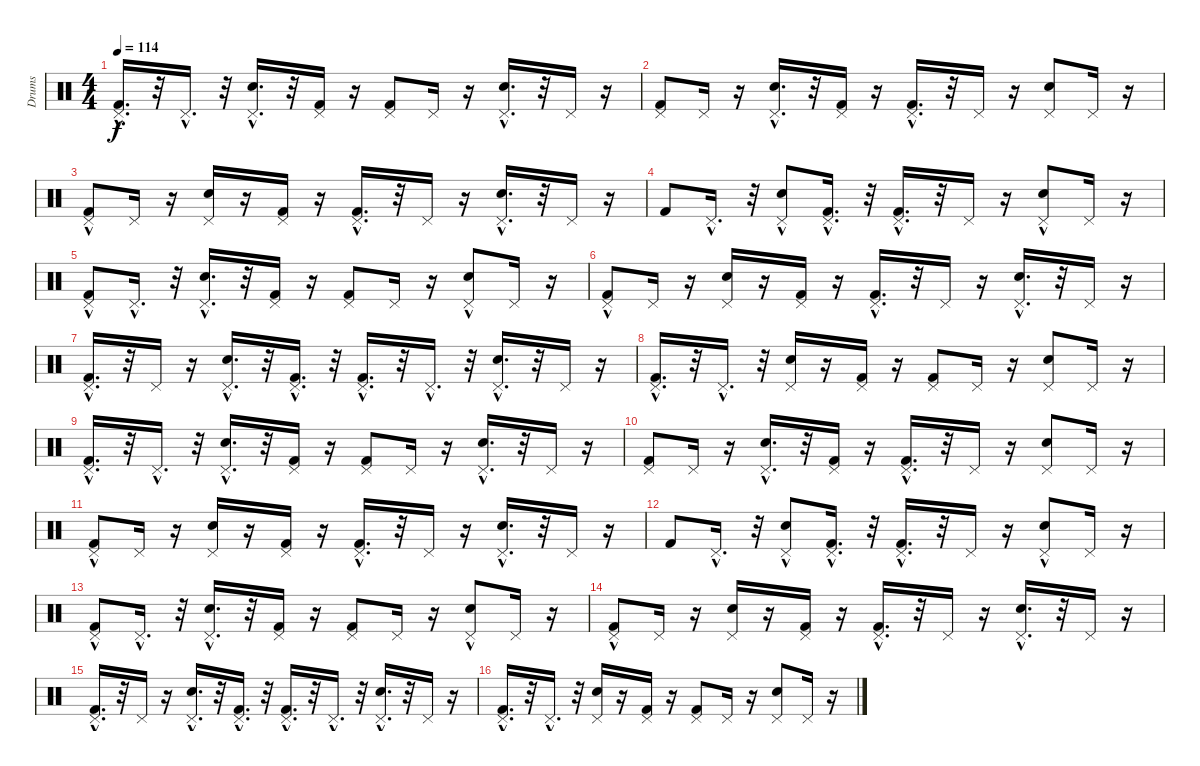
\track ("Drums" "Drums") {instrument percussion}
\staff {score}
\articulation defaults
\ts (4 4)
\tempo 114
\clef neutral
\ks c
("Pedal Hi-Hat (hit)" "Kick (hit) 2"{hac}).16{d dy f} r.32 "Pedal Hi-Hat (hit)"{hac}.16{d} r.32 ("Pedal Hi-Hat (hit)" "Snare (hit) 2"{hac}).16{d} r.32 ("Pedal Hi-Hat (hit)" "Kick (hit) 2").16 r.16 ("Pedal Hi-Hat (hit)" "Kick (hit) 2").8 "Pedal Hi-Hat (hit)".16 r.16 ("Pedal Hi-Hat (hit)" "Snare (hit) 2"{hac}).16{d} r.32 "Pedal Hi-Hat (hit)".16 r.16 |
("Pedal Hi-Hat (hit)" "Kick (hit) 2").8 "Pedal Hi-Hat (hit)".16 r.16 ("Pedal Hi-Hat (hit)" "Snare (hit) 2"{hac}).16{d} r.32 ("Pedal Hi-Hat (hit)" "Kick (hit) 2").16 r.16 ("Pedal Hi-Hat (hit)" "Kick (hit) 2"{hac}).16{d} r.32 "Pedal Hi-Hat (hit)".16 r.16 ("Pedal Hi-Hat (hit)" "Snare (hit) 2").8 "Pedal Hi-Hat (hit)".16 r.16 |
("Pedal Hi-Hat (hit)"{hac} "Kick (hit) 2").8 "Pedal Hi-Hat (hit)".16 r.16 ("Pedal Hi-Hat (hit)" "Snare (hit) 2").16 r.16 ("Pedal Hi-Hat (hit)" "Kick (hit) 2").16 r.16 ("Pedal Hi-Hat (hit)" "Kick (hit) 2"{hac}).16{d} r.32 "Pedal Hi-Hat (hit)".16 r.16 ("Pedal Hi-Hat (hit)" "Snare (hit) 2"{hac}).16{d} r.32 "Pedal Hi-Hat (hit)".16 r.16 |
"Kick (hit) 2".8 "Pedal Hi-Hat (hit)"{hac}.16{d} r.32 ("Pedal Hi-Hat (hit)"{hac} "Snare (hit) 2").8 ("Pedal Hi-Hat (hit)"{hac} "Kick (hit) 2").16{d} r.32 ("Pedal Hi-Hat (hit)"{hac} "Kick (hit) 2"{hac}).16{d} r.32 "Pedal Hi-Hat (hit)".16 r.16 ("Pedal Hi-Hat (hit)"{hac} "Snare (hit) 2").8 "Pedal Hi-Hat (hit)".16 r.16 |
("Pedal Hi-Hat (hit)"{hac} "Kick (hit) 2").8 "Pedal Hi-Hat (hit)"{hac}.16{d} r.32 ("Pedal Hi-Hat (hit)"{hac} "Snare (hit) 2").16{d} r.32 ("Pedal Hi-Hat (hit)" "Kick (hit) 2").16 r.16 ("Pedal Hi-Hat (hit)" "Kick (hit) 2").8 "Pedal Hi-Hat (hit)".16 r.16 ("Pedal Hi-Hat (hit)"{hac} "Snare (hit) 2").8 "Pedal Hi-Hat (hit)".16 r.16 |
("Pedal Hi-Hat (hit)"{hac} "Kick (hit) 2").8 "Pedal Hi-Hat (hit)".16 r.16 ("Pedal Hi-Hat (hit)" "Snare (hit) 2").16 r.16 ("Pedal Hi-Hat (hit)" "Kick (hit) 2").16 r.16 ("Pedal Hi-Hat (hit)"{hac} "Kick (hit) 2").16{d} r.32 "Pedal Hi-Hat (hit)".16 r.16 ("Pedal Hi-Hat (hit)"{hac} "Snare (hit) 2"{hac}).16{d} r.32 "Pedal Hi-Hat (hit)".16 r.16 |
("Pedal Hi-Hat (hit)"{hac} "Kick (hit) 2"{hac}).16{d} r.32 "Pedal Hi-Hat (hit)".16 r.16 ("Pedal Hi-Hat (hit)"{hac} "Snare (hit) 2"{hac}).16{d} r.32 ("Pedal Hi-Hat (hit)"{hac} "Kick (hit) 2").16{d} r.32 ("Pedal Hi-Hat (hit)" "Kick (hit) 2"{hac}).16{d} r.32 "Pedal Hi-Hat (hit)"{hac}.16{d} r.32 ("Pedal Hi-Hat (hit)"{hac} "Snare (hit) 2"{hac}).16{d} r.32 "Pedal Hi-Hat (hit)".16 r.16 |
("Pedal Hi-Hat (hit)"{hac} "Kick (hit) 2"{hac}).16{d} r.32 "Pedal Hi-Hat (hit)"{hac}.16{d} r.32 ("Pedal Hi-Hat (hit)" "Snare (hit) 2").16 r.16 ("Pedal Hi-Hat (hit)" "Kick (hit) 2").16 r.16 ("Pedal Hi-Hat (hit)" "Kick (hit) 2").8 "Pedal Hi-Hat (hit)".16 r.16 ("Snare (hit) 2" "Pedal Hi-Hat (hit)").8 "Pedal Hi-Hat (hit)".16 r.16 |
("Pedal Hi-Hat (hit)" "Kick (hit) 2"{hac}).16{d} r.32 "Pedal Hi-Hat (hit)"{hac}.16{d} r.32 ("Pedal Hi-Hat (hit)" "Snare (hit) 2"{hac}).16{d} r.32 ("Pedal Hi-Hat (hit)" "Kick (hit) 2").16 r.16 ("Pedal Hi-Hat (hit)" "Kick (hit) 2").8 "Pedal Hi-Hat (hit)".16 r.16 ("Pedal Hi-Hat (hit)" "Snare (hit) 2"{hac}).16{d} r.32 "Pedal Hi-Hat (hit)".16 r.16 |
("Pedal Hi-Hat (hit)" "Kick (hit) 2").8 "Pedal Hi-Hat (hit)".16 r.16 ("Pedal Hi-Hat (hit)" "Snare (hit) 2"{hac}).16{d} r.32 ("Pedal Hi-Hat (hit)" "Kick (hit) 2").16 r.16 ("Pedal Hi-Hat (hit)" "Kick (hit) 2"{hac}).16{d} r.32 "Pedal Hi-Hat (hit)".16 r.16 ("Pedal Hi-Hat (hit)" "Snare (hit) 2").8 "Pedal Hi-Hat (hit)".16 r.16 |
("Pedal Hi-Hat (hit)"{hac} "Kick (hit) 2").8 "Pedal Hi-Hat (hit)".16 r.16 ("Pedal Hi-Hat (hit)" "Snare (hit) 2").16 r.16 ("Pedal Hi-Hat (hit)" "Kick (hit) 2").16 r.16 ("Pedal Hi-Hat (hit)" "Kick (hit) 2"{hac}).16{d} r.32 "Pedal Hi-Hat (hit)".16 r.16 ("Pedal Hi-Hat (hit)" "Snare (hit) 2"{hac}).16{d} r.32 "Pedal Hi-Hat (hit)".16 r.16 |
"Kick (hit) 2".8 "Pedal Hi-Hat (hit)"{hac}.16{d} r.32 ("Pedal Hi-Hat (hit)"{hac} "Snare (hit) 2").8 ("Pedal Hi-Hat (hit)"{hac} "Kick (hit) 2").16{d} r.32 ("Pedal Hi-Hat (hit)"{hac} "Kick (hit) 2"{hac}).16{d} r.32 "Pedal Hi-Hat (hit)".16 r.16 ("Pedal Hi-Hat (hit)"{hac} "Snare (hit) 2").8 "Pedal Hi-Hat (hit)".16 r.16 |
("Pedal Hi-Hat (hit)"{hac} "Kick (hit) 2").8 "Pedal Hi-Hat (hit)"{hac}.16{d} r.32 ("Pedal Hi-Hat (hit)"{hac} "Snare (hit) 2").16{d} r.32 ("Pedal Hi-Hat (hit)" "Kick (hit) 2").16 r.16 ("Pedal Hi-Hat (hit)" "Kick (hit) 2").8 "Pedal Hi-Hat (hit)".16 r.16 ("Pedal Hi-Hat (hit)"{hac} "Snare (hit) 2").8 "Pedal Hi-Hat (hit)".16 r.16 |
("Pedal Hi-Hat (hit)"{hac} "Kick (hit) 2").8 "Pedal Hi-Hat (hit)".16 r.16 ("Pedal Hi-Hat (hit)" "Snare (hit) 2").16 r.16 ("Pedal Hi-Hat (hit)" "Kick (hit) 2").16 r.16 ("Pedal Hi-Hat (hit)"{hac} "Kick (hit) 2").16{d} r.32 "Pedal Hi-Hat (hit)".16 r.16 ("Pedal Hi-Hat (hit)"{hac} "Snare (hit) 2"{hac}).16{d} r.32 "Pedal Hi-Hat (hit)".16 r.16 |
("Pedal Hi-Hat (hit)"{hac} "Kick (hit) 2"{hac}).16{d} r.32 "Pedal Hi-Hat (hit)".16 r.16 ("Pedal Hi-Hat (hit)"{hac} "Snare (hit) 2"{hac}).16{d} r.32 ("Pedal Hi-Hat (hit)"{hac} "Kick (hit) 2").16{d} r.32 ("Pedal Hi-Hat (hit)" "Kick (hit) 2"{hac}).16{d} r.32 "Pedal Hi-Hat (hit)"{hac}.16{d} r.32 ("Pedal Hi-Hat (hit)"{hac} "Snare (hit) 2"{hac}).16{d} r.32 "Pedal Hi-Hat (hit)".16 r.16 |
("Pedal Hi-Hat (hit)"{hac} "Kick (hit) 2"{hac}).16{d} r.32 "Pedal Hi-Hat (hit)"{hac}.16{d} r.32 ("Pedal Hi-Hat (hit)" "Snare (hit) 2").16 r.16 ("Pedal Hi-Hat (hit)" "Kick (hit) 2").16 r.16 ("Pedal Hi-Hat (hit)" "Kick (hit) 2").8 "Pedal Hi-Hat (hit)".16 r.16 ("Snare (hit) 2" "Pedal Hi-Hat (hit)").8 "Pedal Hi-Hat (hit)".16 r.16
